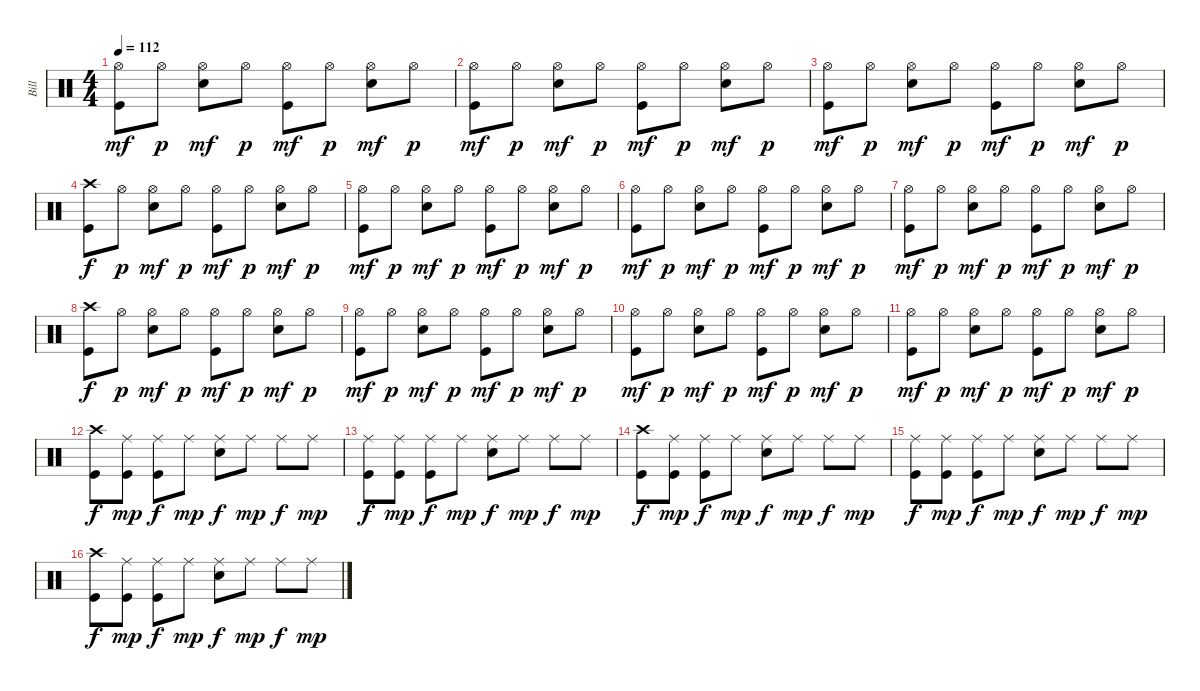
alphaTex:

\track ("Bill" "Bill") {instrument percussion}
\staff {score}
\articulation defaults
\ts (4 4)
\tempo 112
\clef neutral
\ks c
("Hi-Hat (open)" "Kick (hit)").8{dy mf} "Hi-Hat (open)".8{dy p} ("Hi-Hat (open)" "Snare (hit) 2").8{dy mf} "Hi-Hat (open)".8{dy p} ("Hi-Hat (open)" "Kick (hit)").8{dy mf} "Hi-Hat (open)".8{dy p} ("Hi-Hat (open)" "Snare (hit) 2").8{dy mf} "Hi-Hat (open)".8{dy p} |
("Hi-Hat (open)" "Kick (hit)").8{dy mf} "Hi-Hat (open)".8{dy p} ("Hi-Hat (open)" "Snare (hit) 2").8{dy mf} "Hi-Hat (open)".8{dy p} ("Hi-Hat (open)" "Kick (hit)").8{dy mf} "Hi-Hat (open)".8{dy p} ("Hi-Hat (open)" "Snare (hit) 2").8{dy mf} "Hi-Hat (open)".8{dy p} |
("Hi-Hat (open)" "Kick (hit)").8{dy mf} "Hi-Hat (open)".8{dy p} ("Hi-Hat (open)" "Snare (hit) 2").8{dy mf} "Hi-Hat (open)".8{dy p} ("Hi-Hat (open)" "Kick (hit)").8{dy mf} "Hi-Hat (open)".8{dy p} ("Hi-Hat (open)" "Snare (hit) 2").8{dy mf} "Hi-Hat (open)".8{dy p} |
("Crash high (hit)" "Kick (hit)").8{dy f} "Hi-Hat (open)".8{dy p} ("Hi-Hat (open)" "Snare (hit) 2").8{dy mf} "Hi-Hat (open)".8{dy p} ("Hi-Hat (open)" "Kick (hit)").8{dy mf} "Hi-Hat (open)".8{dy p} ("Hi-Hat (open)" "Snare (hit) 2").8{dy mf} "Hi-Hat (open)".8{dy p} |
("Hi-Hat (open)" "Kick (hit)").8{dy mf} "Hi-Hat (open)".8{dy p} ("Hi-Hat (open)" "Snare (hit) 2").8{dy mf} "Hi-Hat (open)".8{dy p} ("Hi-Hat (open)" "Kick (hit)").8{dy mf} "Hi-Hat (open)".8{dy p} ("Hi-Hat (open)" "Snare (hit) 2").8{dy mf} "Hi-Hat (open)".8{dy p} |
("Hi-Hat (open)" "Kick (hit)").8{dy mf} "Hi-Hat (open)".8{dy p} ("Hi-Hat (open)" "Snare (hit) 2").8{dy mf} "Hi-Hat (open)".8{dy p} ("Hi-Hat (open)" "Kick (hit)").8{dy mf} "Hi-Hat (open)".8{dy p} ("Hi-Hat (open)" "Snare (hit) 2").8{dy mf} "Hi-Hat (open)".8{dy p} |
("Hi-Hat (open)" "Kick (hit)").8{dy mf} "Hi-Hat (open)".8{dy p} ("Hi-Hat (open)" "Snare (hit) 2").8{dy mf} "Hi-Hat (open)".8{dy p} ("Hi-Hat (open)" "Kick (hit)").8{dy mf} "Hi-Hat (open)".8{dy p} ("Hi-Hat (open)" "Snare (hit) 2").8{dy mf} "Hi-Hat (open)".8{dy p} |
("Crash high (hit)" "Kick (hit)").8{dy f} "Hi-Hat (open)".8{dy p} ("Hi-Hat (open)" "Snare (hit) 2").8{dy mf} "Hi-Hat (open)".8{dy p} ("Hi-Hat (open)" "Kick (hit)").8{dy mf} "Hi-Hat (open)".8{dy p} ("Hi-Hat (open)" "Snare (hit) 2").8{dy mf} "Hi-Hat (open)".8{dy p} |
("Hi-Hat (open)" "Kick (hit)").8{dy mf} "Hi-Hat (open)".8{dy p} ("Hi-Hat (open)" "Snare (hit) 2").8{dy mf} "Hi-Hat (open)".8{dy p} ("Hi-Hat (open)" "Kick (hit)").8{dy mf} "Hi-Hat (open)".8{dy p} ("Hi-Hat (open)" "Snare (hit) 2").8{dy mf} "Hi-Hat (open)".8{dy p} |
("Hi-Hat (open)" "Kick (hit)").8{dy mf} "Hi-Hat (open)".8{dy p} ("Hi-Hat (open)" "Snare (hit) 2").8{dy mf} "Hi-Hat (open)".8{dy p} ("Hi-Hat (open)" "Kick (hit)").8{dy mf} "Hi-Hat (open)".8{dy p} ("Hi-Hat (open)" "Snare (hit) 2").8{dy mf} "Hi-Hat (open)".8{dy p} |
("Hi-Hat (open)" "Kick (hit)").8{dy mf} "Hi-Hat (open)".8{dy p} ("Hi-Hat (open)" "Snare (hit) 2").8{dy mf} "Hi-Hat (open)".8{dy p} ("Hi-Hat (open)" "Kick (hit)").8{dy mf} "Hi-Hat (open)".8{dy p} ("Hi-Hat (open)" "Snare (hit) 2").8{dy mf} "Hi-Hat (open)".8{dy p} |
("Crash high (hit)" "Kick (hit)").8{dy f} ("Ride (middle)" "Kick (hit)").8{dy mp} ("Ride (middle)" "Kick (hit)").8{dy f} "Ride (middle)".8{dy mp} ("Ride (middle)" "Snare (hit) 2").8{dy f} "Ride (middle)".8{dy mp} "Ride (middle)".8{dy f} "Ride (middle)".8{dy mp} |
("Ride (middle)" "Kick (hit)").8{dy f} ("Ride (middle)" "Kick (hit)").8{dy mp} ("Ride (middle)" "Kick (hit)").8{dy f} "Ride (middle)".8{dy mp} ("Ride (middle)" "Snare (hit) 2").8{dy f} "Ride (middle)".8{dy mp} "Ride (middle)".8{dy f} "Ride (middle)".8{dy mp} |
("Crash high (hit)" "Kick (hit)").8{dy f} ("Ride (middle)" "Kick (hit)").8{dy mp} ("Ride (middle)" "Kick (hit)").8{dy f} "Ride (middle)".8{dy mp} ("Ride (middle)" "Snare (hit) 2").8{dy f} "Ride (middle)".8{dy mp} "Ride (middle)".8{dy f} "Ride (middle)".8{dy mp} |
("Ride (middle)" "Kick (hit)").8{dy f} ("Ride (middle)" "Kick (hit)").8{dy mp} ("Ride (middle)" "Kick (hit)").8{dy f} "Ride (middle)".8{dy mp} ("Ride (middle)" "Snare (hit) 2").8{dy f} "Ride (middle)".8{dy mp} "Ride (middle)".8{dy f} "Ride (middle)".8{dy mp} |
("Crash high (hit)" "Kick (hit)").8{dy f} ("Ride (middle)" "Kick (hit)").8{dy mp} ("Ride (middle)" "Kick (hit)").8{dy f} "Ride (middle)".8{dy mp} ("Ride (middle)" "Snare (hit) 2").8{dy f} "Ride (middle)".8{dy mp} "Ride (middle)".8{dy f} "Ride (middle)".8{dy mp}
